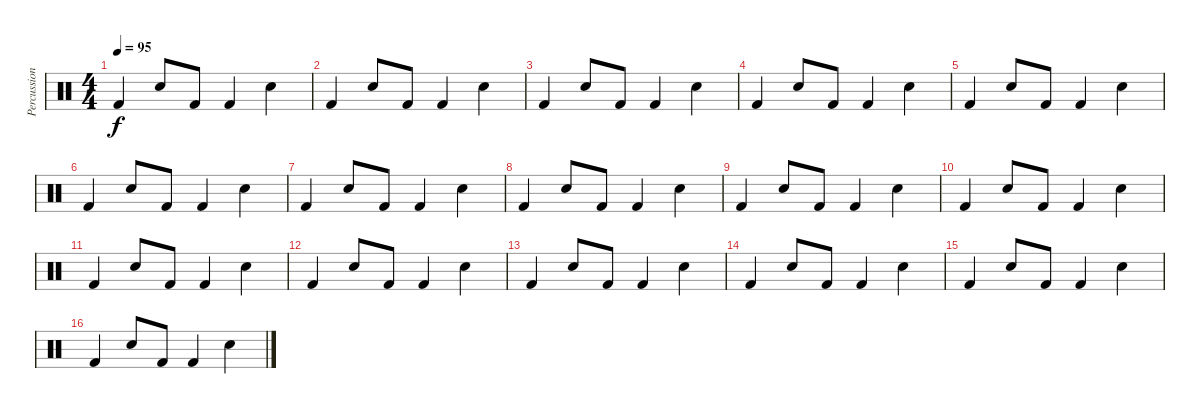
\track ("Percussions" "Percussion") {instrument percussion}
\staff {score}
\articulation defaults
\ts (4 4)
\tempo 95
\clef neutral
\ks c "Kick (hit) 2".4{dy f} "Snare (hit) 2".8 "Kick (hit) 2".8 "Kick (hit) 2".4 "Snare (hit) 2".4
|
"Kick (hit) 2".4 "Snare (hit) 2".8 "Kick (hit) 2".8 "Kick (hit) 2".4 "Snare (hit) 2".4 |
"Kick (hit) 2".4 "Snare (hit) 2".8 "Kick (hit) 2".8 "Kick (hit) 2".4 "Snare (hit) 2".4 |
"Kick (hit) 2".4 "Snare (hit) 2".8 "Kick (hit) 2".8 "Kick (hit) 2".4 "Snare (hit) 2".4 |
"Kick (hit) 2".4 "Snare (hit) 2".8 "Kick (hit) 2".8 "Kick (hit) 2".4 "Snare (hit) 2".4 |
"Kick (hit) 2".4 "Snare (hit) 2".8 "Kick (hit) 2".8 "Kick (hit) 2".4 "Snare (hit) 2".4 |
"Kick (hit) 2".4 "Snare (hit) 2".8 "Kick (hit) 2".8 "Kick (hit) 2".4 "Snare (hit) 2".4 |
"Kick (hit) 2".4 "Snare (hit) 2".8 "Kick (hit) 2".8 "Kick (hit) 2".4 "Snare (hit) 2".4 |
"Kick (hit) 2".4 "Snare (hit) 2".8 "Kick (hit) 2".8 "Kick (hit) 2".4 "Snare (hit) 2".4 |
"Kick (hit) 2".4 "Snare (hit) 2".8 "Kick (hit) 2".8 "Kick (hit) 2".4 "Snare (hit) 2".4 |
"Kick (hit) 2".4 "Snare (hit) 2".8 "Kick (hit) 2".8 "Kick (hit) 2".4 "Snare (hit) 2".4 |
"Kick (hit) 2".4 "Snare (hit) 2".8 "Kick (hit) 2".8 "Kick (hit) 2".4 "Snare (hit) 2".4 |
"Kick (hit) 2".4 "Snare (hit) 2".8 "Kick (hit) 2".8 "Kick (hit) 2".4 "Snare (hit) 2".4 |
"Kick (hit) 2".4 "Snare (hit) 2".8 "Kick (hit) 2".8 "Kick (hit) 2".4 "Snare (hit) 2".4 |
"Kick (hit) 2".4 "Snare (hit) 2".8 "Kick (hit) 2".8 "Kick (hit) 2".4 "Snare (hit) 2".4 |
"Kick (hit) 2".4 "Snare (hit) 2".8 "Kick (hit) 2".8 "Kick (hit) 2".4 "Snare (hit) 2".4
